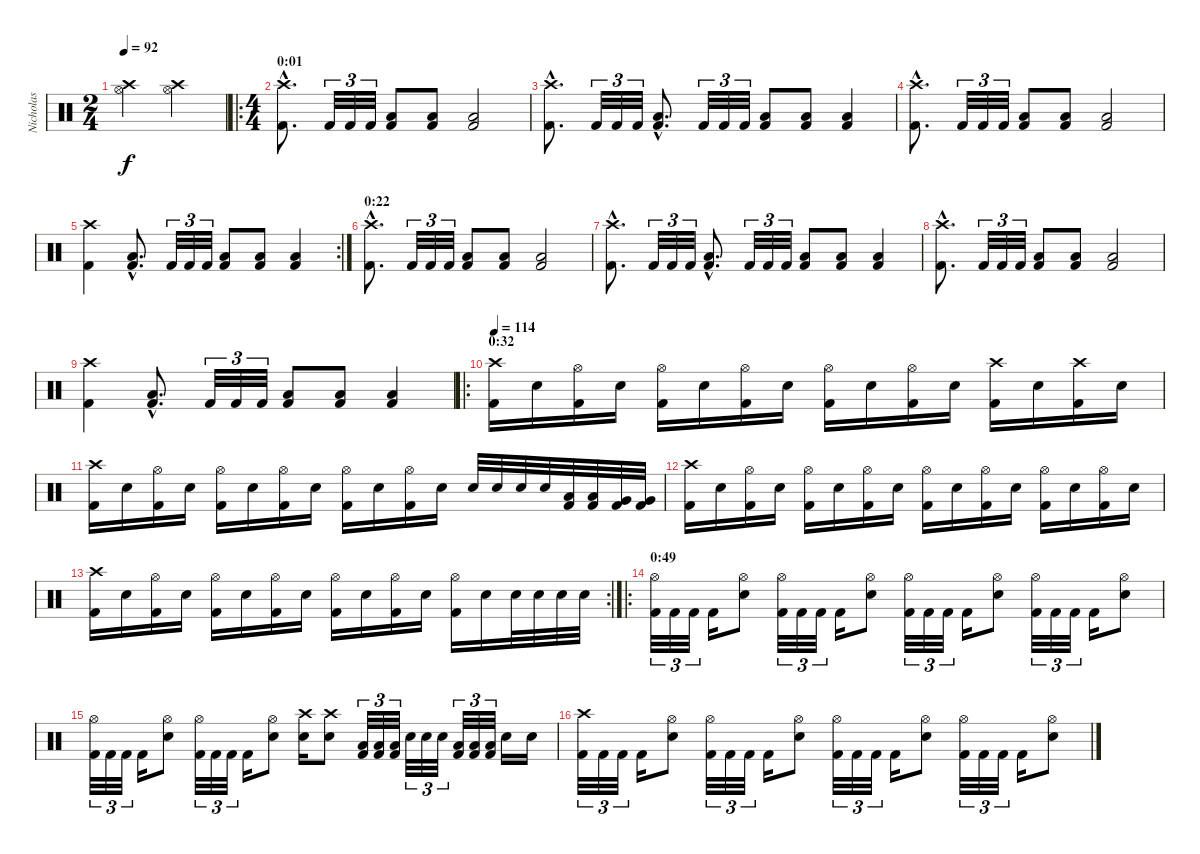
\track ("Nicholas" "Nicholas") {instrument percussion}
\staff {score}
\articulation defaults
\ts (2 4)
\tempo 92
\clef neutral
\ks c
("Hi-Hat (open)" "Crash high (hit)").4{dy f} ("Hi-Hat (open)" "Crash high (hit)").4 |
\ro
\ts (4 4)
\section ("" "0:01")
("Kick (hit) 2"{hac} "Crash high (hit)"{hac}).8{d} "Kick (hit) 2".32{tu (3 2)} "Kick (hit) 2".32{tu (3 2)} "Kick (hit) 2".32{tu (3 2)} ("Kick (hit) 2" "Low Tom (hit)").8 ("Kick (hit) 2" "Low Tom (hit)").8 ("Kick (hit) 2" "Low Tom (hit)").2 |
("Kick (hit) 2"{hac} "Crash high (hit)"{hac}).8{d} "Kick (hit) 2".32{tu (3 2)} "Kick (hit) 2".32{tu (3 2)} "Kick (hit) 2".32{tu (3 2)} ("Kick (hit) 2"{hac} "Low Tom (hit)"{hac}).8{d} "Kick (hit) 2".32{tu (3 2)} "Kick (hit) 2".32{tu (3 2)} "Kick (hit) 2".32{tu (3 2)} ("Kick (hit) 2" "Low Tom (hit)").8 ("Kick (hit) 2" "Low Tom (hit)").8 ("Kick (hit) 2" "Low Tom (hit)").4 |
("Kick (hit) 2"{hac} "Crash high (hit)"{hac}).8{d} "Kick (hit) 2".32{tu (3 2)} "Kick (hit) 2".32{tu (3 2)} "Kick (hit) 2".32{tu (3 2)} ("Kick (hit) 2" "Low Tom (hit)").8 ("Kick (hit) 2" "Low Tom (hit)").8 ("Kick (hit) 2" "Low Tom (hit)").2 |
\rc 2
("Kick (hit) 2" "Crash high (hit)").4 ("Kick (hit) 2"{hac} "Low Tom (hit)"{hac}).8{d} "Kick (hit) 2".32{tu (3 2)} "Kick (hit) 2".32{tu (3 2)} "Kick (hit) 2".32{tu (3 2)} ("Kick (hit) 2" "Low Tom (hit)").8 ("Kick (hit) 2" "Low Tom (hit)").8 ("Kick (hit) 2" "Low Tom (hit)").4 |
\section ("" "0:22")
("Kick (hit) 2"{hac} "Crash high (hit)"{hac}).8{d} "Kick (hit) 2".32{tu (3 2)} "Kick (hit) 2".32{tu (3 2)} "Kick (hit) 2".32{tu (3 2)} ("Kick (hit) 2" "Low Tom (hit)").8 ("Kick (hit) 2" "Low Tom (hit)").8 ("Kick (hit) 2" "Low Tom (hit)").2 |
("Kick (hit) 2"{hac} "Crash high (hit)"{hac}).8{d} "Kick (hit) 2".32{tu (3 2)} "Kick (hit) 2".32{tu (3 2)} "Kick (hit) 2".32{tu (3 2)} ("Kick (hit) 2"{hac} "Low Tom (hit)"{hac}).8{d} "Kick (hit) 2".32{tu (3 2)} "Kick (hit) 2".32{tu (3 2)} "Kick (hit) 2".32{tu (3 2)} ("Kick (hit) 2" "Low Tom (hit)").8 ("Kick (hit) 2" "Low Tom (hit)").8 ("Kick (hit) 2" "Low Tom (hit)").4 |
("Kick (hit) 2"{hac} "Crash high (hit)"{hac}).8{d} "Kick (hit) 2".32{tu (3 2)} "Kick (hit) 2".32{tu (3 2)} "Kick (hit) 2".32{tu (3 2)} ("Kick (hit) 2" "Low Tom (hit)").8 ("Kick (hit) 2" "Low Tom (hit)").8 ("Kick (hit) 2" "Low Tom (hit)").2 |
("Kick (hit) 2" "Crash high (hit)").4 ("Kick (hit) 2"{hac} "Low Tom (hit)"{hac}).8{d} "Kick (hit) 2".32{tu (3 2)} "Kick (hit) 2".32{tu (3 2)} "Kick (hit) 2".32{tu (3 2)} ("Kick (hit) 2" "Low Tom (hit)").8 ("Kick (hit) 2" "Low Tom (hit)").8 ("Kick (hit) 2" "Low Tom (hit)").4 |
\ro
\section ("" "0:32")
\tempo 114
("Kick (hit) 2" "Crash high (hit)").16 "Snare (hit) 2".16 ("Kick (hit) 2" "Hi-Hat (open)").16 "Snare (hit) 2".16 ("Kick (hit) 2" "Hi-Hat (open)").16 "Snare (hit) 2".16 ("Kick (hit) 2" "Hi-Hat (open)").16 "Snare (hit) 2".16 ("Kick (hit) 2" "Hi-Hat (open)").16 "Snare (hit) 2".16 ("Kick (hit) 2" "Hi-Hat (open)").16 "Snare (hit) 2".16 ("Kick (hit) 2" "Crash high (hit)").16 "Snare (hit) 2".16 ("Kick (hit) 2" "Crash high (hit)").16 "Snare (hit) 2".16 |
("Kick (hit) 2" "Crash high (hit)").16 "Snare (hit) 2".16 ("Kick (hit) 2" "Hi-Hat (open)").16 "Snare (hit) 2".16 ("Kick (hit) 2" "Hi-Hat (open)").16 "Snare (hit) 2".16 ("Kick (hit) 2" "Hi-Hat (open)").16 "Snare (hit) 2".16 ("Kick (hit) 2" "Hi-Hat (open)").16 "Snare (hit) 2".16 ("Kick (hit) 2" "Hi-Hat (open)").16 "Snare (hit) 2".16 "Snare (hit) 2".32 "Snare (hit) 2".32 "Snare (hit) 2".32 "Snare (hit) 2".32 ("Kick (hit) 2" "Low Tom (hit)").32 ("Kick (hit) 2" "Low Tom (hit)").32 ("Kick (hit) 2" "Very Low Tom (hit)").32 ("Kick (hit) 2" "Very Low Tom (hit)").32 |
("Kick (hit) 2" "Crash high (hit)").16 "Snare (hit) 2".16 ("Kick (hit) 2" "Hi-Hat (open)").16 "Snare (hit) 2".16 ("Kick (hit) 2" "Hi-Hat (open)").16 "Snare (hit) 2".16 ("Kick (hit) 2" "Hi-Hat (open)").16 "Snare (hit) 2".16 ("Kick (hit) 2" "Hi-Hat (open)").16 "Snare (hit) 2".16 ("Kick (hit) 2" "Hi-Hat (open)").16 "Snare (hit) 2".16 ("Kick (hit) 2" "Hi-Hat (open)").16 "Snare (hit) 2".16 ("Kick (hit) 2" "Hi-Hat (open)").16 "Snare (hit) 2".16 |
\rc 2
("Kick (hit) 2" "Crash high (hit)").16 "Snare (hit) 2".16 ("Kick (hit) 2" "Hi-Hat (open)").16 "Snare (hit) 2".16 ("Kick (hit) 2" "Hi-Hat (open)").16 "Snare (hit) 2".16 ("Kick (hit) 2" "Hi-Hat (open)").16 "Snare (hit) 2".16 ("Kick (hit) 2" "Hi-Hat (open)").16 "Snare (hit) 2".16 ("Kick (hit) 2" "Hi-Hat (open)").16 "Snare (hit) 2".16 ("Kick (hit) 2" "Hi-Hat (open)").16 "Snare (hit) 2".16 "Snare (hit) 2".32 "Snare (hit) 2".32 "Snare (hit) 2".32 "Snare (hit) 2".32 |
\ro
\section ("" "0:49")
("Kick (hit) 2" "Hi-Hat (open)").32{tu (3 2)} "Kick (hit) 2".32{tu (3 2)} "Kick (hit) 2".32{tu (3 2)} "Kick (hit) 2".16 ("Snare (hit) 2" "Hi-Hat (open)").8 ("Kick (hit) 2" "Hi-Hat (open)").32{tu (3 2)} "Kick (hit) 2".32{tu (3 2)} "Kick (hit) 2".32{tu (3 2)} "Kick (hit) 2".16 ("Snare (hit) 2" "Hi-Hat (open)").8 ("Kick (hit) 2" "Hi-Hat (open)").32{tu (3 2)} "Kick (hit) 2".32{tu (3 2)} "Kick (hit) 2".32{tu (3 2)} "Kick (hit) 2".16 ("Snare (hit) 2" "Hi-Hat (open)").8 ("Kick (hit) 2" "Hi-Hat (open)").32{tu (3 2)} "Kick (hit) 2".32{tu (3 2)} "Kick (hit) 2".32{tu (3 2)} "Kick (hit) 2".16 ("Snare (hit) 2" "Hi-Hat (open)").8 |
("Kick (hit) 2" "Hi-Hat (open)").32{tu (3 2)} "Kick (hit) 2".32{tu (3 2)} "Kick (hit) 2".32{tu (3 2)} "Kick (hit) 2".16 ("Snare (hit) 2" "Hi-Hat (open)").8 ("Kick (hit) 2" "Hi-Hat (open)").32{tu (3 2)} "Kick (hit) 2".32{tu (3 2)} "Kick (hit) 2".32{tu (3 2)} "Kick (hit) 2".16 ("Snare (hit) 2" "Hi-Hat (open)").8 ("Snare (hit) 2" "Crash high (hit)").16 ("Snare (hit) 2" "Crash high (hit)").8 ("Kick (hit) 2" "Low Tom (hit)").32{tu (3 2)} ("Kick (hit) 2" "Low Tom (hit)").32{tu (3 2)} ("Kick (hit) 2" "Low Tom (hit)").32{tu (3 2)} "Snare (hit) 2".32{tu (3 2)} "Snare (hit) 2".32{tu (3 2)} "Snare (hit) 2".32{tu (3 2)} ("Kick (hit) 2" "Low Tom (hit)").32{tu (3 2)} ("Kick (hit) 2" "Low Tom (hit)").32{tu (3 2)} ("Kick (hit) 2" "Low Tom (hit)").32{tu (3 2)} "Snare (hit) 2".16 "Snare (hit) 2".16 |
("Kick (hit) 2" "Crash high (hit)").32{tu (3 2)} "Kick (hit) 2".32{tu (3 2)} "Kick (hit) 2".32{tu (3 2)} "Kick (hit) 2".16 ("Snare (hit) 2" "Hi-Hat (open)").8 ("Kick (hit) 2" "Hi-Hat (open)").32{tu (3 2)} "Kick (hit) 2".32{tu (3 2)} "Kick (hit) 2".32{tu (3 2)} "Kick (hit) 2".16 ("Snare (hit) 2" "Hi-Hat (open)").8 ("Kick (hit) 2" "Hi-Hat (open)").32{tu (3 2)} "Kick (hit) 2".32{tu (3 2)} "Kick (hit) 2".32{tu (3 2)} "Kick (hit) 2".16 ("Snare (hit) 2" "Hi-Hat (open)").8 ("Kick (hit) 2" "Hi-Hat (open)").32{tu (3 2)} "Kick (hit) 2".32{tu (3 2)} "Kick (hit) 2".32{tu (3 2)} "Kick (hit) 2".16 ("Snare (hit) 2" "Hi-Hat (open)").8
